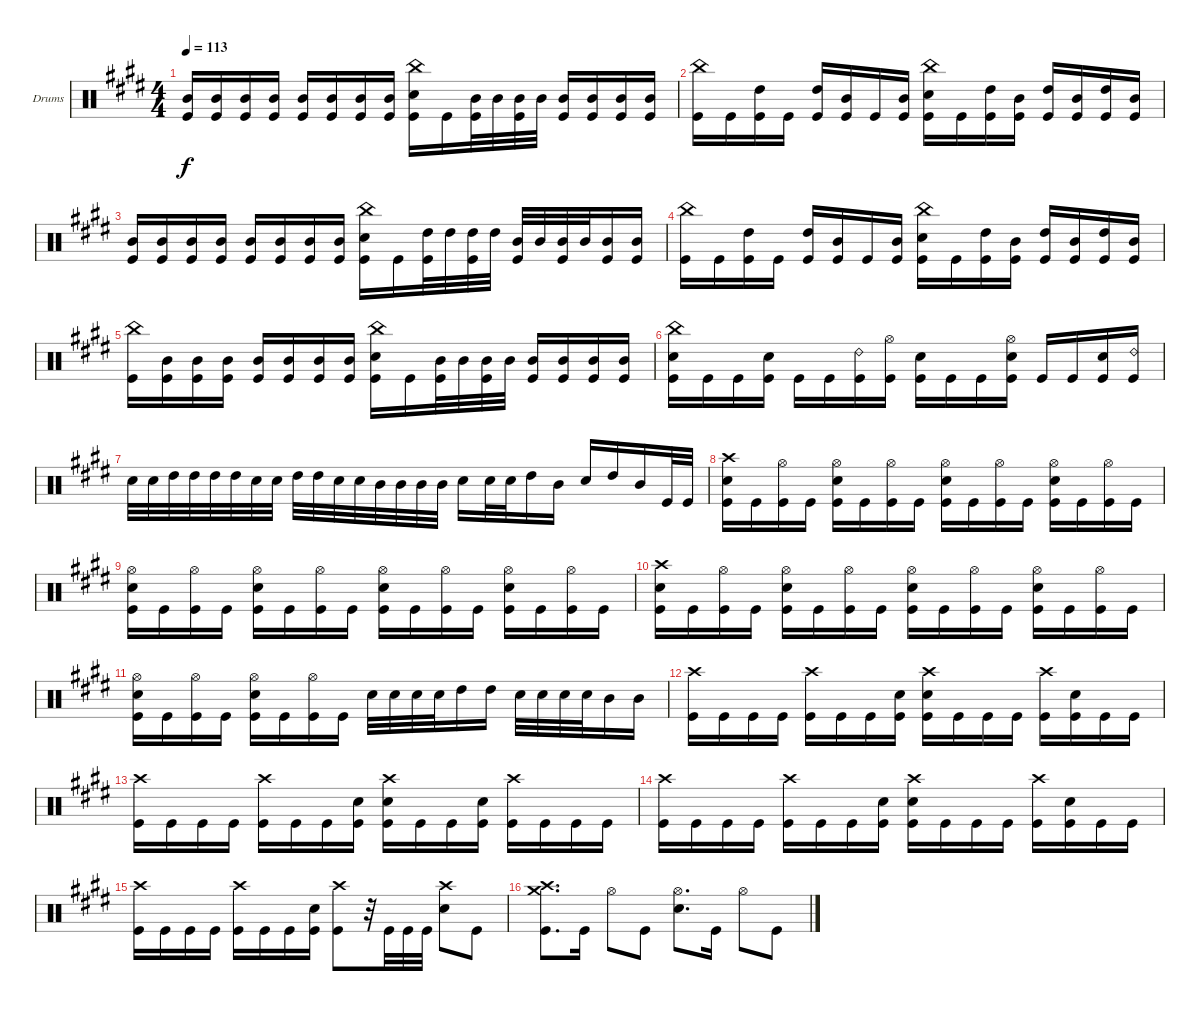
\bracketExtendMode groupsimilarinstruments
\firstSystemTrackNameOrientation horizontal
\otherSystemsTrackNameOrientation horizontal
\track ("Drumkit" "Drums") {instrument percussion}
\staff {score}
\articulation defaults
\ts (4 4)
\tempo 113
\clef neutral
\ks e
("Mid Tom (hit)" "Kick (hit)").16{dy f} ("Mid Tom (hit)" "Kick (hit)").16 ("Mid Tom (hit)" "Kick (hit)").16 ("Mid Tom (hit)" "Kick (hit)").16 ("Kick (hit)" "Mid Tom (hit)").16 ("Kick (hit)" "Mid Tom (hit)").16 ("Kick (hit)" "Mid Tom (hit)").16 ("Kick (hit)" "Mid Tom (hit)").16 ("Snare (hit) 2" "China (hit)" "Kick (hit)").16 "Kick (hit)".16 ("Mid Tom (hit)" "Kick (hit)").32 "Mid Tom (hit)".32 ("Mid Tom (hit)" "Kick (hit)").32 "Mid Tom (hit)".32 ("Mid Tom (hit)" "Kick (hit)").16 ("Mid Tom (hit)" "Kick (hit)").16 ("Mid Tom (hit)" "Kick (hit)").16 ("Mid Tom (hit)" "Kick (hit)").16 |
("Kick (hit)" "China (hit)").16 "Kick (hit)".16 ("Kick (hit)" "High Tom (hit)").16 "Kick (hit)".16 ("Kick (hit)" "High Tom (hit)").16 ("Kick (hit)" "Mid Tom (hit)").16 "Kick (hit)".16 ("Kick (hit)" "Mid Tom (hit)").16 ("Kick (hit)" "Snare (hit) 2" "China (hit)").16 "Kick (hit)".16 ("Kick (hit)" "High Tom (hit)").16 ("Kick (hit)" "Mid Tom (hit)").16 ("Kick (hit)" "High Tom (hit)").16 ("Kick (hit)" "Mid Tom (hit)").16 ("Kick (hit)" "High Tom (hit)").16 ("Kick (hit)" "Mid Tom (hit)").16 |
("Mid Tom (hit)" "Kick (hit)").16 ("Mid Tom (hit)" "Kick (hit)").16 ("Mid Tom (hit)" "Kick (hit)").16 ("Mid Tom (hit)" "Kick (hit)").16 ("Kick (hit)" "Mid Tom (hit)").16 ("Kick (hit)" "Mid Tom (hit)").16 ("Kick (hit)" "Mid Tom (hit)").16 ("Kick (hit)" "Mid Tom (hit)").16 ("Snare (hit) 2" "China (hit)" "Kick (hit)").16 "Kick (hit)".16 ("Kick (hit)" "High Tom (hit)").32 "High Tom (hit)".32 ("Kick (hit)" "High Tom (hit)").32 "High Tom (hit)".32 ("Mid Tom (hit)" "Kick (hit)").32 "Mid Tom (hit)".32 ("Mid Tom (hit)" "Kick (hit)").32 "Mid Tom (hit)".32 ("Mid Tom (hit)" "Kick (hit)").16 ("Mid Tom (hit)" "Kick (hit)").16 |
("Kick (hit)" "China (hit)").16 "Kick (hit)".16 ("Kick (hit)" "High Tom (hit)").16 "Kick (hit)".16 ("Kick (hit)" "High Tom (hit)").16 ("Kick (hit)" "Mid Tom (hit)").16 "Kick (hit)".16 ("Kick (hit)" "Mid Tom (hit)").16 ("Kick (hit)" "Snare (hit) 2" "China (hit)").16 "Kick (hit)".16 ("Kick (hit)" "High Tom (hit)").16 ("Kick (hit)" "Mid Tom (hit)").16 ("Kick (hit)" "High Tom (hit)").16 ("Kick (hit)" "Mid Tom (hit)").16 ("Kick (hit)" "High Tom (hit)").16 ("Kick (hit)" "Mid Tom (hit)").16 |
("Kick (hit)" "China (hit)").16 ("Mid Tom (hit)" "Kick (hit)").16 ("Mid Tom (hit)" "Kick (hit)").16 ("Mid Tom (hit)" "Kick (hit)").16 ("Kick (hit)" "Mid Tom (hit)").16 ("Kick (hit)" "Mid Tom (hit)").16 ("Kick (hit)" "Mid Tom (hit)").16 ("Kick (hit)" "Mid Tom (hit)").16 ("Snare (hit) 2" "China (hit)" "Kick (hit)").16 "Kick (hit)".16 ("Mid Tom (hit)" "Kick (hit)").32 "Mid Tom (hit)".32 ("Mid Tom (hit)" "Kick (hit)").32 "Mid Tom (hit)".32 ("Mid Tom (hit)" "Kick (hit)").16 ("Mid Tom (hit)" "Kick (hit)").16 ("Mid Tom (hit)" "Kick (hit)").16 ("Mid Tom (hit)" "Kick (hit)").16 |
("Kick (hit)" "Snare (hit) 2" "China (hit)").16 "Kick (hit)".16 "Kick (hit)".16 ("Kick (hit)" "Snare (hit) 2").16 "Kick (hit)".16 "Kick (hit)".16 ("Kick (hit)" "Ride (bell) 2").16 ("Kick (hit)" "Hi-Hat (open)").16 ("Kick (hit)" "Snare (hit) 2").16 "Kick (hit)".16 "Kick (hit)".16 ("Kick (hit)" "Snare (hit) 2" "Hi-Hat (open)").16 "Kick (hit)".16 "Kick (hit)".16 ("Kick (hit)" "Snare (hit) 2").16 ("Kick (hit)" "Ride (bell) 2").16 |
"Snare (hit) 2".32 "Snare (hit) 2".32 "High Tom (hit)".32 "High Tom (hit)".32 "High Tom (hit)".32 "High Tom (hit)".32 "Snare (hit) 2".32 "Snare (hit) 2".32 "High Tom (hit)".32 "High Tom (hit)".32 "Snare (hit) 2".32 "Snare (hit) 2".32 "Mid Tom (hit)".32 "Mid Tom (hit)".32 "Mid Tom (hit)".32 "Mid Tom (hit)".32 "Snare (hit) 2".16 "Snare (hit) 2".32 "Snare (hit) 2".32 "High Tom (hit)".16 "Mid Tom (hit)".16 "Snare (hit) 2".16 "High Tom (hit)".16 "Mid Tom (hit)".16 "Kick (hit)".32 "Kick (hit)".32 |
("Snare (hit) 2" "Kick (hit)" "Crash high (hit)").16 "Kick (hit)".16 ("Kick (hit)" "Hi-Hat (open)").16 "Kick (hit)".16 ("Hi-Hat (open)" "Snare (hit) 2" "Kick (hit)").16 "Kick (hit)".16 ("Kick (hit)" "Hi-Hat (open)").16 "Kick (hit)".16 ("Hi-Hat (open)" "Snare (hit) 2" "Kick (hit)").16 "Kick (hit)".16 ("Kick (hit)" "Hi-Hat (open)").16 "Kick (hit)".16 ("Hi-Hat (open)" "Snare (hit) 2" "Kick (hit)").16 "Kick (hit)".16 ("Kick (hit)" "Hi-Hat (open)").16 "Kick (hit)".16 |
("Hi-Hat (open)" "Snare (hit) 2" "Kick (hit)").16 "Kick (hit)".16 ("Kick (hit)" "Hi-Hat (open)").16 "Kick (hit)".16 ("Hi-Hat (open)" "Snare (hit) 2" "Kick (hit)").16 "Kick (hit)".16 ("Kick (hit)" "Hi-Hat (open)").16 "Kick (hit)".16 ("Hi-Hat (open)" "Snare (hit) 2" "Kick (hit)").16 "Kick (hit)".16 ("Kick (hit)" "Hi-Hat (open)").16 "Kick (hit)".16 ("Hi-Hat (open)" "Snare (hit) 2" "Kick (hit)").16 "Kick (hit)".16 ("Kick (hit)" "Hi-Hat (open)").16 "Kick (hit)".16 |
("Snare (hit) 2" "Kick (hit)" "Crash high (hit)").16 "Kick (hit)".16 ("Kick (hit)" "Hi-Hat (open)").16 "Kick (hit)".16 ("Hi-Hat (open)" "Snare (hit) 2" "Kick (hit)").16 "Kick (hit)".16 ("Kick (hit)" "Hi-Hat (open)").16 "Kick (hit)".16 ("Hi-Hat (open)" "Snare (hit) 2" "Kick (hit)").16 "Kick (hit)".16 ("Kick (hit)" "Hi-Hat (open)").16 "Kick (hit)".16 ("Hi-Hat (open)" "Snare (hit) 2" "Kick (hit)").16 "Kick (hit)".16 ("Kick (hit)" "Hi-Hat (open)").16 "Kick (hit)".16 |
("Hi-Hat (open)" "Snare (hit) 2" "Kick (hit)").16 "Kick (hit)".16 ("Kick (hit)" "Hi-Hat (open)").16 "Kick (hit)".16 ("Hi-Hat (open)" "Snare (hit) 2" "Kick (hit)").16 "Kick (hit)".16 ("Kick (hit)" "Hi-Hat (open)").16 "Kick (hit)".16 "Snare (hit) 2".32 "Snare (hit) 2".32 "Snare (hit) 2".32 "Snare (hit) 2".32 "High Tom (hit)".16 "High Tom (hit)".16 "Snare (hit) 2".32 "Snare (hit) 2".32 "Snare (hit) 2".32 "Snare (hit) 2".32 "Mid Tom (hit)".16 "Mid Tom (hit)".16 |
("Kick (hit)" "Crash high (hit)").16 "Kick (hit)".16 "Kick (hit)".16 "Kick (hit)".16 ("Kick (hit)" "Crash high (hit)").16 "Kick (hit)".16 "Kick (hit)".16 ("Kick (hit)" "Snare (hit) 2").16 ("Kick (hit)" "Snare (hit) 2" "Crash high (hit)").16 "Kick (hit)".16 "Kick (hit)".16 "Kick (hit)".16 ("Kick (hit)" "Crash high (hit)").16 ("Kick (hit)" "Snare (hit) 2").16 "Kick (hit)".16 "Kick (hit)".16 |
("Kick (hit)" "Crash high (hit)").16 "Kick (hit)".16 "Kick (hit)".16 "Kick (hit)".16 ("Kick (hit)" "Crash high (hit)").16 "Kick (hit)".16 "Kick (hit)".16 ("Kick (hit)" "Snare (hit) 2").16 ("Kick (hit)" "Snare (hit) 2" "Crash high (hit)").16 "Kick (hit)".16 "Kick (hit)".16 ("Kick (hit)" "Snare (hit) 2").16 ("Kick (hit)" "Crash high (hit)").16 "Kick (hit)".16 "Kick (hit)".16 "Kick (hit)".16 |
("Kick (hit)" "Crash high (hit)").16 "Kick (hit)".16 "Kick (hit)".16 "Kick (hit)".16 ("Kick (hit)" "Crash high (hit)").16 "Kick (hit)".16 "Kick (hit)".16 ("Kick (hit)" "Snare (hit) 2").16 ("Kick (hit)" "Snare (hit) 2" "Crash high (hit)").16 "Kick (hit)".16 "Kick (hit)".16 "Kick (hit)".16 ("Kick (hit)" "Crash high (hit)").16 ("Kick (hit)" "Snare (hit) 2").16 "Kick (hit)".16 "Kick (hit)".16 |
("Kick (hit)" "Crash high (hit)").16 "Kick (hit)".16 "Kick (hit)".16 "Kick (hit)".16 ("Kick (hit)" "Crash high (hit)").16 "Kick (hit)".16 "Kick (hit)".16 ("Kick (hit)" "Snare (hit) 2").16 ("Kick (hit)" "Crash high (hit)").8 r.32 "Kick (hit)".32 "Kick (hit)".32 "Kick (hit)".32 ("Snare (hit) 2" "Crash high (hit)").8 "Kick (hit)".8 |
("Kick (hit)" "Crash high (hit)" "Crash medium (hit)").8{d} "Kick (hit)".16 "Hi-Hat (open)".8 "Kick (hit)".8 ("Snare (hit) 2" "Hi-Hat (open)").8{d} "Kick (hit)".16 "Hi-Hat (open)".8 "Kick (hit)".8
